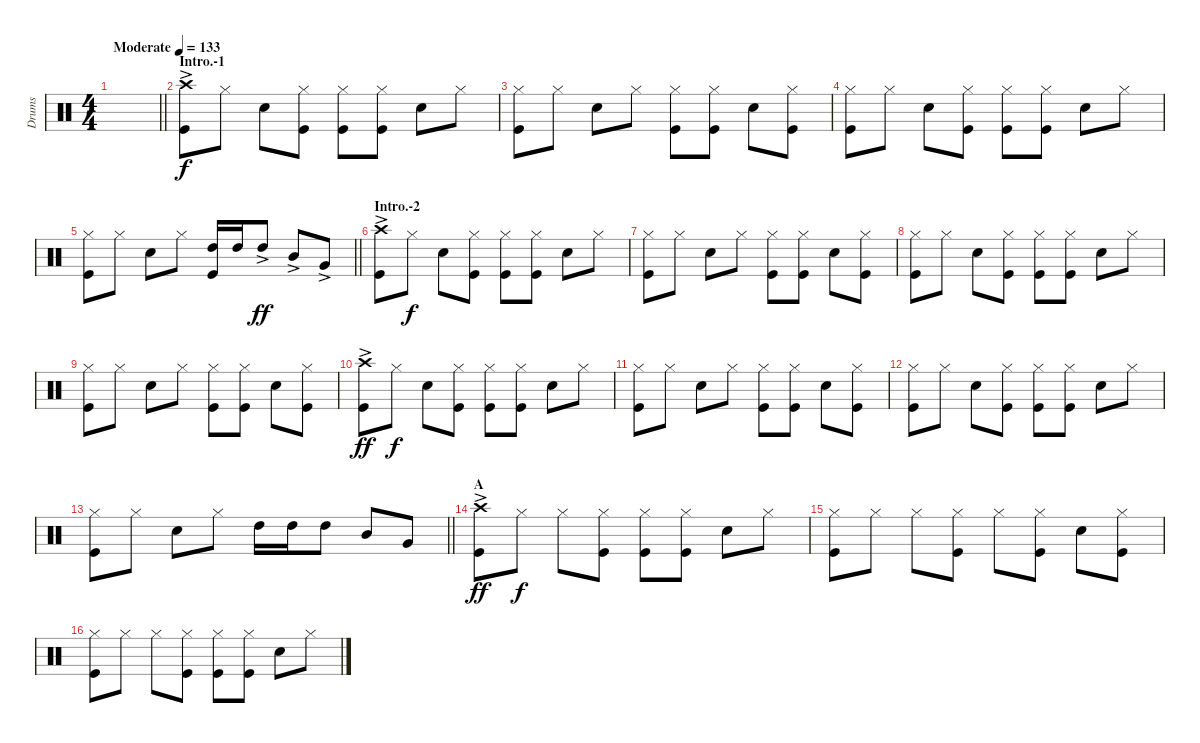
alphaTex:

\track ("Drums" "Drums") {instrument percussion}
\staff {score}
\articulation defaults
\ts (4 4)
\tempo (133 "Moderate")
\clef neutral
\barLineRight lightlight
\ks c
|
\section ("" "Intro.-1")
("Crash high (hit)"{ac} "Kick (hit)").8 "Hi-Hat (closed)".8{dy f} "Snare (hit) 2".8 ("Hi-Hat (closed)" "Kick (hit)").8 ("Hi-Hat (closed)" "Kick (hit)").8 ("Hi-Hat (closed)" "Kick (hit)").8 "Snare (hit) 2".8 "Hi-Hat (closed)".8 |
("Hi-Hat (closed)" "Kick (hit)").8 "Hi-Hat (closed)".8 "Snare (hit) 2".8 "Hi-Hat (closed)".8 ("Hi-Hat (closed)" "Kick (hit)").8 ("Hi-Hat (closed)" "Kick (hit)").8 "Snare (hit) 2".8 ("Hi-Hat (closed)" "Kick (hit)").8 |
("Hi-Hat (closed)" "Kick (hit)").8 "Hi-Hat (closed)".8 "Snare (hit) 2".8 ("Hi-Hat (closed)" "Kick (hit)").8 ("Hi-Hat (closed)" "Kick (hit)").8 ("Hi-Hat (closed)" "Kick (hit)").8 "Snare (hit) 2".8 "Hi-Hat (closed)".8 |
\barLineRight lightlight
("Hi-Hat (closed)" "Kick (hit)").8 "Hi-Hat (closed)".8 "Snare (hit) 2".8 "Hi-Hat (closed)".8 ("Kick (hit)" "High Tom (hit)").16 "High Tom (hit)".16 "High Tom (hit)"{ac}.8{dy ff} "Mid Tom (hit)"{ac}.8 "Very Low Tom (hit)"{ac}.8 |
\section ("" "Intro.-2")
("Crash high (hit)"{ac} "Kick (hit)").8 "Hi-Hat (closed)".8{dy f} "Snare (hit) 2".8 ("Hi-Hat (closed)" "Kick (hit)").8 ("Hi-Hat (closed)" "Kick (hit)").8 ("Hi-Hat (closed)" "Kick (hit)").8 "Snare (hit) 2".8 "Hi-Hat (closed)".8 |
("Hi-Hat (closed)" "Kick (hit)").8 "Hi-Hat (closed)".8 "Snare (hit) 2".8 "Hi-Hat (closed)".8 ("Hi-Hat (closed)" "Kick (hit)").8 ("Hi-Hat (closed)" "Kick (hit)").8 "Snare (hit) 2".8 ("Hi-Hat (closed)" "Kick (hit)").8 |
("Hi-Hat (closed)" "Kick (hit)").8 "Hi-Hat (closed)".8 "Snare (hit) 2".8 ("Hi-Hat (closed)" "Kick (hit)").8 ("Kick (hit)" "Hi-Hat (closed)").8 ("Hi-Hat (closed)" "Kick (hit)").8 "Snare (hit) 2".8 "Hi-Hat (closed)".8 |
("Hi-Hat (closed)" "Kick (hit)").8 "Hi-Hat (closed)".8 "Snare (hit) 2".8 "Hi-Hat (closed)".8 ("Hi-Hat (closed)" "Kick (hit)").8 ("Hi-Hat (closed)" "Kick (hit)").8 "Snare (hit) 2".8 ("Hi-Hat (closed)" "Kick (hit)").8 |
("Crash high (hit)"{ac} "Kick (hit)").8{dy ff} "Hi-Hat (closed)".8{dy f} "Snare (hit) 2".8 ("Hi-Hat (closed)" "Kick (hit)").8 ("Hi-Hat (closed)" "Kick (hit)").8 ("Hi-Hat (closed)" "Kick (hit)").8 "Snare (hit) 2".8 "Hi-Hat (closed)".8 |
("Hi-Hat (closed)" "Kick (hit)").8 "Hi-Hat (closed)".8 "Snare (hit) 2".8 "Hi-Hat (closed)".8 ("Hi-Hat (closed)" "Kick (hit)").8 ("Hi-Hat (closed)" "Kick (hit)").8 "Snare (hit) 2".8 ("Hi-Hat (closed)" "Kick (hit)").8 |
("Hi-Hat (closed)" "Kick (hit)").8 "Hi-Hat (closed)".8 "Snare (hit) 2".8 ("Hi-Hat (closed)" "Kick (hit)").8 ("Kick (hit)" "Hi-Hat (closed)").8 ("Hi-Hat (closed)" "Kick (hit)").8 "Snare (hit) 2".8 "Hi-Hat (closed)".8 |
\barLineRight lightlight
("Hi-Hat (closed)" "Kick (hit)").8 "Hi-Hat (closed)".8 "Snare (hit) 2".8 "Hi-Hat (closed)".8 "High Tom (hit)".16 "High Tom (hit)".16 "High Tom (hit)".8 "Mid Tom (hit)".8 "Very Low Tom (hit)".8 |
\section ("" "A")
("Crash high (hit)"{ac} "Kick (hit)").8{dy ff} "Hi-Hat (closed)".8{dy f} "Hi-Hat (closed)".8 ("Hi-Hat (closed)" "Kick (hit)").8 ("Hi-Hat (closed)" "Kick (hit)").8 ("Hi-Hat (closed)" "Kick (hit)").8 "Snare (hit) 2".8 "Hi-Hat (closed)".8 |
("Hi-Hat (closed)" "Kick (hit)").8 "Hi-Hat (closed)".8 "Hi-Hat (closed)".8 ("Hi-Hat (closed)" "Kick (hit)").8 "Hi-Hat (closed)".8 ("Hi-Hat (closed)" "Kick (hit)").8 "Snare (hit) 2".8 ("Hi-Hat (closed)" "Kick (hit)").8 |
("Kick (hit)" "Hi-Hat (closed)").8 "Hi-Hat (closed)".8 "Hi-Hat (closed)".8 ("Hi-Hat (closed)" "Kick (hit)").8 ("Hi-Hat (closed)" "Kick (hit)").8 ("Kick (hit)" "Hi-Hat (closed)").8 "Snare (hit) 2".8 "Hi-Hat (closed)".8
